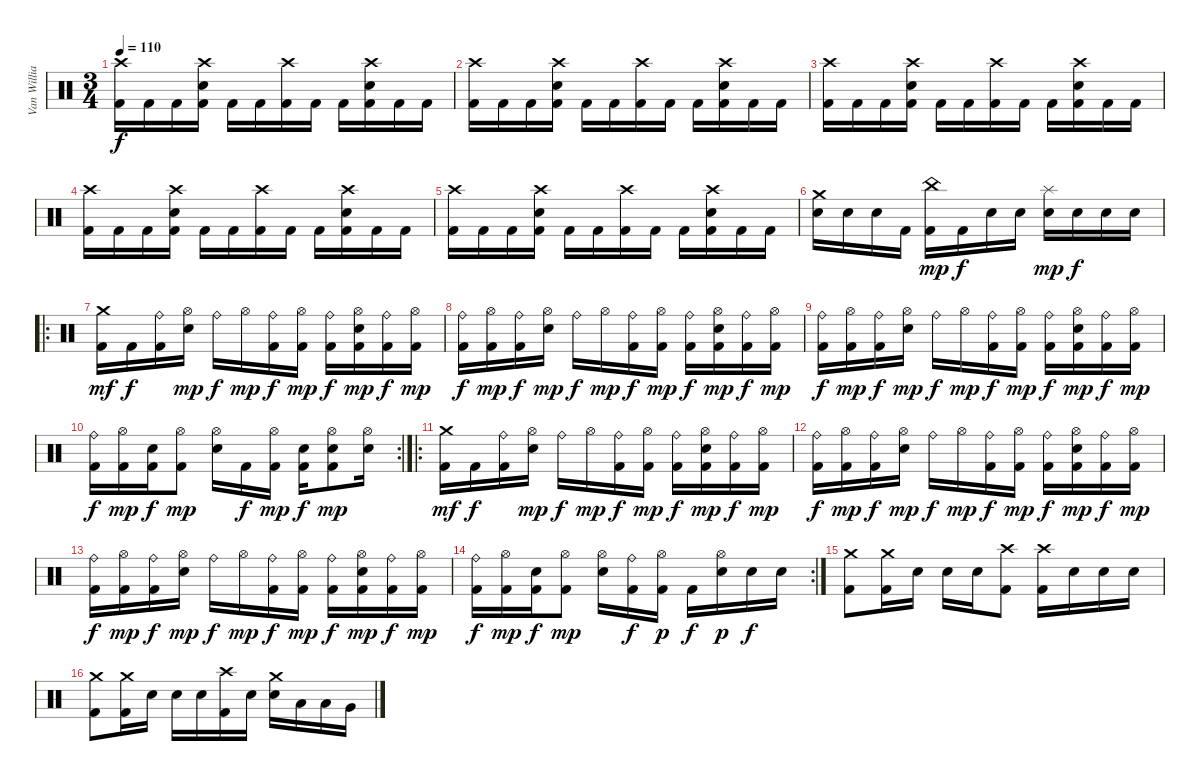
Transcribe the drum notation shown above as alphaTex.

\track ("Van Williams" "Van Willia") {instrument percussion}
\staff {score}
\articulation defaults
\ts (3 4)
\tempo 110
\clef neutral
\ks c
("Crash high (hit)" "Kick (hit) 2").16{dy f} "Kick (hit) 2".16 "Kick (hit) 2".16 ("Crash high (hit)" "Electric Snare (hit)" "Kick (hit) 2").16 "Kick (hit) 2".16 "Kick (hit) 2".16 ("Crash high (hit)" "Kick (hit) 2").16 "Kick (hit) 2".16 "Kick (hit) 2".16 ("Crash high (hit)" "Electric Snare (hit)" "Kick (hit) 2").16 "Kick (hit) 2".16 "Kick (hit) 2".16 |
("Crash high (hit)" "Kick (hit) 2").16 "Kick (hit) 2".16 "Kick (hit) 2".16 ("Crash high (hit)" "Electric Snare (hit)" "Kick (hit) 2").16 "Kick (hit) 2".16 "Kick (hit) 2".16 ("Crash high (hit)" "Kick (hit) 2").16 "Kick (hit) 2".16 "Kick (hit) 2".16 ("Crash high (hit)" "Electric Snare (hit)" "Kick (hit) 2").16 "Kick (hit) 2".16 "Kick (hit) 2".16 |
("Crash high (hit)" "Kick (hit) 2").16 "Kick (hit) 2".16 "Kick (hit) 2".16 ("Crash high (hit)" "Electric Snare (hit)" "Kick (hit) 2").16 "Kick (hit) 2".16 "Kick (hit) 2".16 ("Crash high (hit)" "Kick (hit) 2").16 "Kick (hit) 2".16 "Kick (hit) 2".16 ("Crash high (hit)" "Electric Snare (hit)" "Kick (hit) 2").16 "Kick (hit) 2".16 "Kick (hit) 2".16 |
("Crash high (hit)" "Kick (hit) 2").16 "Kick (hit) 2".16 "Kick (hit) 2".16 ("Crash high (hit)" "Electric Snare (hit)" "Kick (hit) 2").16 "Kick (hit) 2".16 "Kick (hit) 2".16 ("Crash high (hit)" "Kick (hit) 2").16 "Kick (hit) 2".16 "Kick (hit) 2".16 ("Crash high (hit)" "Electric Snare (hit)" "Kick (hit) 2").16 "Kick (hit) 2".16 "Kick (hit) 2".16 |
("Crash high (hit)" "Kick (hit) 2").16 "Kick (hit) 2".16 "Kick (hit) 2".16 ("Crash high (hit)" "Electric Snare (hit)" "Kick (hit) 2").16 "Kick (hit) 2".16 "Kick (hit) 2".16 ("Crash high (hit)" "Kick (hit) 2").16 "Kick (hit) 2".16 "Kick (hit) 2".16 ("Crash high (hit)" "Electric Snare (hit)" "Kick (hit) 2").16 "Kick (hit) 2".16 "Kick (hit) 2".16 |
("Crash medium (hit)" "Electric Snare (hit)").16 "Electric Snare (hit)".16 "Electric Snare (hit)".16 "Kick (hit) 2".16 ("China (hit)" "Kick (hit) 2").16{dy mp} "Kick (hit) 2".16{dy f} "Electric Snare (hit)".16 "Electric Snare (hit)".16 ("Splash (hit)" "Electric Snare (hit)").16{dy mp} "Electric Snare (hit)".16{dy f} "Electric Snare (hit)".16 "Electric Snare (hit)".16 |
\ro
("Crash medium (hit)" "Kick (hit) 2").16{dy mf} "Kick (hit) 2".16{dy f} ("Ride (bell)" "Kick (hit) 2").16 ("Hi-Hat (open)" "Electric Snare (hit)").16{dy mp} "Ride (bell)".16{dy f} "Hi-Hat (open)".16{dy mp} ("Ride (bell)" "Kick (hit) 2").16{dy f} ("Hi-Hat (open)" "Kick (hit) 2").16{dy mp} ("Ride (bell)" "Kick (hit) 2").16{dy f} ("Hi-Hat (open)" "Electric Snare (hit)" "Kick (hit) 2").16{dy mp} ("Ride (bell)" "Kick (hit) 2").16{dy f} ("Hi-Hat (open)" "Kick (hit) 2").16{dy mp} |
("Ride (bell)" "Kick (hit) 2").16{dy f} ("Hi-Hat (open)" "Kick (hit) 2").16{dy mp} ("Ride (bell)" "Kick (hit) 2").16{dy f} ("Hi-Hat (open)" "Electric Snare (hit)").16{dy mp} "Ride (bell)".16{dy f} "Hi-Hat (open)".16{dy mp} ("Ride (bell)" "Kick (hit) 2").16{dy f} ("Hi-Hat (open)" "Kick (hit) 2").16{dy mp} ("Ride (bell)" "Kick (hit) 2").16{dy f} ("Hi-Hat (open)" "Electric Snare (hit)" "Kick (hit) 2").16{dy mp} ("Ride (bell)" "Kick (hit) 2").16{dy f} ("Hi-Hat (open)" "Kick (hit) 2").16{dy mp} |
("Ride (bell)" "Kick (hit) 2").16{dy f} ("Hi-Hat (open)" "Kick (hit) 2").16{dy mp} ("Ride (bell)" "Kick (hit) 2").16{dy f} ("Hi-Hat (open)" "Electric Snare (hit)").16{dy mp} "Ride (bell)".16{dy f} "Hi-Hat (open)".16{dy mp} ("Ride (bell)" "Kick (hit) 2").16{dy f} ("Hi-Hat (open)" "Kick (hit) 2").16{dy mp} ("Ride (bell)" "Kick (hit) 2").16{dy f} ("Hi-Hat (open)" "Electric Snare (hit)" "Kick (hit) 2").16{dy mp} ("Ride (bell)" "Kick (hit) 2").16{dy f} ("Hi-Hat (open)" "Kick (hit) 2").16{dy mp} |
\rc 2
("Ride (bell)" "Kick (hit) 2").16{dy f} ("Hi-Hat (open)" "Kick (hit) 2").16{dy mp} ("Electric Snare (hit)" "Kick (hit) 2").16{dy f} ("Hi-Hat (open)" "Kick (hit) 2").8{dy mp} ("Hi-Hat (open)" "Electric Snare (hit)").16 "Kick (hit) 2".16{dy f} ("Hi-Hat (open)" "Kick (hit) 2").16{dy mp} ("Electric Snare (hit)" "Kick (hit) 2").16{dy f} ("Hi-Hat (open)" "Electric Snare (hit)" "Kick (hit) 2").8{dy mp} ("Hi-Hat (open)" "Electric Snare (hit)").16 |
\ro
("Crash medium (hit)" "Kick (hit) 2").16{dy mf} "Kick (hit) 2".16{dy f} ("Ride (bell)" "Kick (hit) 2").16 ("Hi-Hat (open)" "Electric Snare (hit)").16{dy mp} "Ride (bell)".16{dy f} "Hi-Hat (open)".16{dy mp} ("Ride (bell)" "Kick (hit) 2").16{dy f} ("Hi-Hat (open)" "Kick (hit) 2").16{dy mp} ("Ride (bell)" "Kick (hit) 2").16{dy f} ("Hi-Hat (open)" "Electric Snare (hit)" "Kick (hit) 2").16{dy mp} ("Ride (bell)" "Kick (hit) 2").16{dy f} ("Hi-Hat (open)" "Kick (hit) 2").16{dy mp} |
("Ride (bell)" "Kick (hit) 2").16{dy f} ("Hi-Hat (open)" "Kick (hit) 2").16{dy mp} ("Ride (bell)" "Kick (hit) 2").16{dy f} ("Hi-Hat (open)" "Electric Snare (hit)").16{dy mp} "Ride (bell)".16{dy f} "Hi-Hat (open)".16{dy mp} ("Ride (bell)" "Kick (hit) 2").16{dy f} ("Hi-Hat (open)" "Kick (hit) 2").16{dy mp} ("Ride (bell)" "Kick (hit) 2").16{dy f} ("Hi-Hat (open)" "Electric Snare (hit)" "Kick (hit) 2").16{dy mp} ("Ride (bell)" "Kick (hit) 2").16{dy f} ("Hi-Hat (open)" "Kick (hit) 2").16{dy mp} |
("Ride (bell)" "Kick (hit) 2").16{dy f} ("Hi-Hat (open)" "Kick (hit) 2").16{dy mp} ("Ride (bell)" "Kick (hit) 2").16{dy f} ("Hi-Hat (open)" "Electric Snare (hit)").16{dy mp} "Ride (bell)".16{dy f} "Hi-Hat (open)".16{dy mp} ("Ride (bell)" "Kick (hit) 2").16{dy f} ("Hi-Hat (open)" "Kick (hit) 2").16{dy mp} ("Ride (bell)" "Kick (hit) 2").16{dy f} ("Hi-Hat (open)" "Electric Snare (hit)" "Kick (hit) 2").16{dy mp} ("Ride (bell)" "Kick (hit) 2").16{dy f} ("Hi-Hat (open)" "Kick (hit) 2").16{dy mp} |
\rc 2
("Ride (bell)" "Kick (hit) 2").16{dy f} ("Hi-Hat (open)" "Kick (hit) 2").16{dy mp} ("Electric Snare (hit)" "Kick (hit) 2").16{dy f} ("Hi-Hat (open)" "Kick (hit) 2").8{dy mp} ("Hi-Hat (open)" "Electric Snare (hit)").16 ("Ride (bell)" "Kick (hit) 2").16{dy f} ("Hi-Hat (open)" "Kick (hit) 2").16{dy p} "Kick (hit) 2".16{dy f} ("Hi-Hat (open)" "Electric Snare (hit)").16{dy p} "Electric Snare (hit)".16{dy f} "Electric Snare (hit)".16 |
("Crash medium (hit)" "Kick (hit) 2").8 ("Crash medium (hit)" "Kick (hit) 2").16 "Electric Snare (hit)".16 "Electric Snare (hit)".16 "Electric Snare (hit)".16 ("Crash high (hit)" "Kick (hit) 2").8 ("Crash high (hit)" "Kick (hit) 2").16 "Electric Snare (hit)".16 "Electric Snare (hit)".16 "Electric Snare (hit)".16 |
("Crash medium (hit)" "Kick (hit) 2").8 ("Crash medium (hit)" "Kick (hit) 2").16 "Electric Snare (hit)".16 "Electric Snare (hit)".16 "Electric Snare (hit)".16 ("Crash high (hit)" "Kick (hit) 2").16 "Electric Snare (hit)".16 ("Crash medium (hit)" "Electric Snare (hit)").16 "Low Tom (hit)".16 "Low Tom (hit)".16 "Very Low Tom (hit)".16
